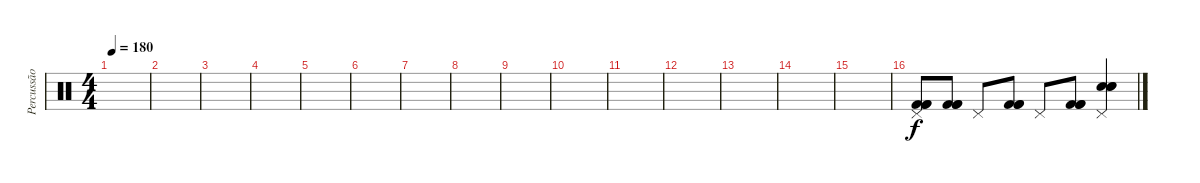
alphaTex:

\track ("Percussão" "Percussão") {instrument percussion}
\staff {score}
\articulation defaults
\ts (4 4)
\tempo 180
\clef neutral
\ks c
|
|
|
|
|
|
|
|
|
|
|
|
|
|
|
("Pedal Hi-Hat (hit)" "Kick (hit) 2" "Kick (hit) 2" "Kick (hit) 2").8 ("Kick (hit) 2" "Kick (hit) 2" "Kick (hit) 2").8 "Pedal Hi-Hat (hit)".8 ("Kick (hit) 2" "Kick (hit) 2" "Kick (hit) 2").8 "Pedal Hi-Hat (hit)".8 ("Kick (hit) 2" "Kick (hit) 2" "Kick (hit) 2").8 ("Pedal Hi-Hat (hit)" "Electric Snare (hit)" "Electric Snare (hit)" "Electric Snare (hit)").4
